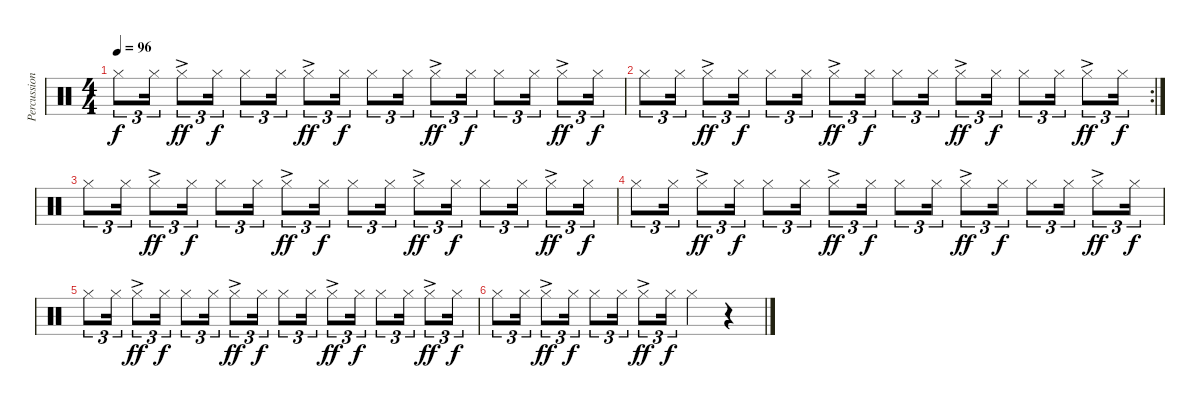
\track ("Percussion" "Percussion") {instrument percussion}
\staff {score}
\articulation defaults
\ts (4 4)
\tempo 96
\clef neutral
\ks c "Hi-Hat (closed)".8{tu (3 2) dy f} "Hi-Hat (closed)".16{tu (3 2)} "Hi-Hat (closed)"{ac}.8{tu (3 2) dy ff} "Hi-Hat (closed)".16{tu (3 2) dy f} "Hi-Hat (closed)".8{tu (3 2)} "Hi-Hat (closed)".16{tu (3 2)} "Hi-Hat (closed)"{ac}.8{tu (3 2) dy ff} "Hi-Hat (closed)".16{tu (3 2) dy f} "Hi-Hat (closed)".8{tu (3 2)} "Hi-Hat (closed)".16{tu (3 2)} "Hi-Hat (closed)"{ac}.8{tu (3 2) dy ff} "Hi-Hat (closed)".16{tu (3 2) dy f} "Hi-Hat (closed)".8{tu (3 2)} "Hi-Hat (closed)".16{tu (3 2)} "Hi-Hat (closed)"{ac}.8{tu (3 2) dy ff} "Hi-Hat (closed)".16{tu (3 2) dy f}
|
\rc 2 "Hi-Hat (closed)".8{tu (3 2)} "Hi-Hat (closed)".16{tu (3 2)} "Hi-Hat (closed)"{ac}.8{tu (3 2) dy ff} "Hi-Hat (closed)".16{tu (3 2) dy f} "Hi-Hat (closed)".8{tu (3 2)} "Hi-Hat (closed)".16{tu (3 2)} "Hi-Hat (closed)"{ac}.8{tu (3 2) dy ff} "Hi-Hat (closed)".16{tu (3 2) dy f} "Hi-Hat (closed)".8{tu (3 2)} "Hi-Hat (closed)".16{tu (3 2)} "Hi-Hat (closed)"{ac}.8{tu (3 2) dy ff} "Hi-Hat (closed)".16{tu (3 2) dy f} "Hi-Hat (closed)".8{tu (3 2)} "Hi-Hat (closed)".16{tu (3 2)} "Hi-Hat (closed)"{ac}.8{tu (3 2) dy ff} "Hi-Hat (closed)".16{tu (3 2) dy f}
|
"Hi-Hat (closed)".8{tu (3 2)} "Hi-Hat (closed)".16{tu (3 2)} "Hi-Hat (closed)"{ac}.8{tu (3 2) dy ff} "Hi-Hat (closed)".16{tu (3 2) dy f} "Hi-Hat (closed)".8{tu (3 2)} "Hi-Hat (closed)".16{tu (3 2)} "Hi-Hat (closed)"{ac}.8{tu (3 2) dy ff} "Hi-Hat (closed)".16{tu (3 2) dy f} "Hi-Hat (closed)".8{tu (3 2)} "Hi-Hat (closed)".16{tu (3 2)} "Hi-Hat (closed)"{ac}.8{tu (3 2) dy ff} "Hi-Hat (closed)".16{tu (3 2) dy f} "Hi-Hat (closed)".8{tu (3 2)} "Hi-Hat (closed)".16{tu (3 2)} "Hi-Hat (closed)"{ac}.8{tu (3 2) dy ff} "Hi-Hat (closed)".16{tu (3 2) dy f} |
"Hi-Hat (closed)".8{tu (3 2)} "Hi-Hat (closed)".16{tu (3 2)} "Hi-Hat (closed)"{ac}.8{tu (3 2) dy ff} "Hi-Hat (closed)".16{tu (3 2) dy f} "Hi-Hat (closed)".8{tu (3 2)} "Hi-Hat (closed)".16{tu (3 2)} "Hi-Hat (closed)"{ac}.8{tu (3 2) dy ff} "Hi-Hat (closed)".16{tu (3 2) dy f} "Hi-Hat (closed)".8{tu (3 2)} "Hi-Hat (closed)".16{tu (3 2)} "Hi-Hat (closed)"{ac}.8{tu (3 2) dy ff} "Hi-Hat (closed)".16{tu (3 2) dy f} "Hi-Hat (closed)".8{tu (3 2)} "Hi-Hat (closed)".16{tu (3 2)} "Hi-Hat (closed)"{ac}.8{tu (3 2) dy ff} "Hi-Hat (closed)".16{tu (3 2) dy f} |
"Hi-Hat (closed)".8{tu (3 2)} "Hi-Hat (closed)".16{tu (3 2)} "Hi-Hat (closed)"{ac}.8{tu (3 2) dy ff} "Hi-Hat (closed)".16{tu (3 2) dy f} "Hi-Hat (closed)".8{tu (3 2)} "Hi-Hat (closed)".16{tu (3 2)} "Hi-Hat (closed)"{ac}.8{tu (3 2) dy ff} "Hi-Hat (closed)".16{tu (3 2) dy f} "Hi-Hat (closed)".8{tu (3 2)} "Hi-Hat (closed)".16{tu (3 2)} "Hi-Hat (closed)"{ac}.8{tu (3 2) dy ff} "Hi-Hat (closed)".16{tu (3 2) dy f} "Hi-Hat (closed)".8{tu (3 2)} "Hi-Hat (closed)".16{tu (3 2)} "Hi-Hat (closed)"{ac}.8{tu (3 2) dy ff} "Hi-Hat (closed)".16{tu (3 2) dy f} |
"Hi-Hat (closed)".8{tu (3 2)} "Hi-Hat (closed)".16{tu (3 2)} "Hi-Hat (closed)"{ac}.8{tu (3 2) dy ff} "Hi-Hat (closed)".16{tu (3 2) dy f} "Hi-Hat (closed)".8{tu (3 2)} "Hi-Hat (closed)".16{tu (3 2)} "Hi-Hat (closed)"{ac}.8{tu (3 2) dy ff} "Hi-Hat (closed)".16{tu (3 2) dy f} "Hi-Hat (closed)".4 r.4
